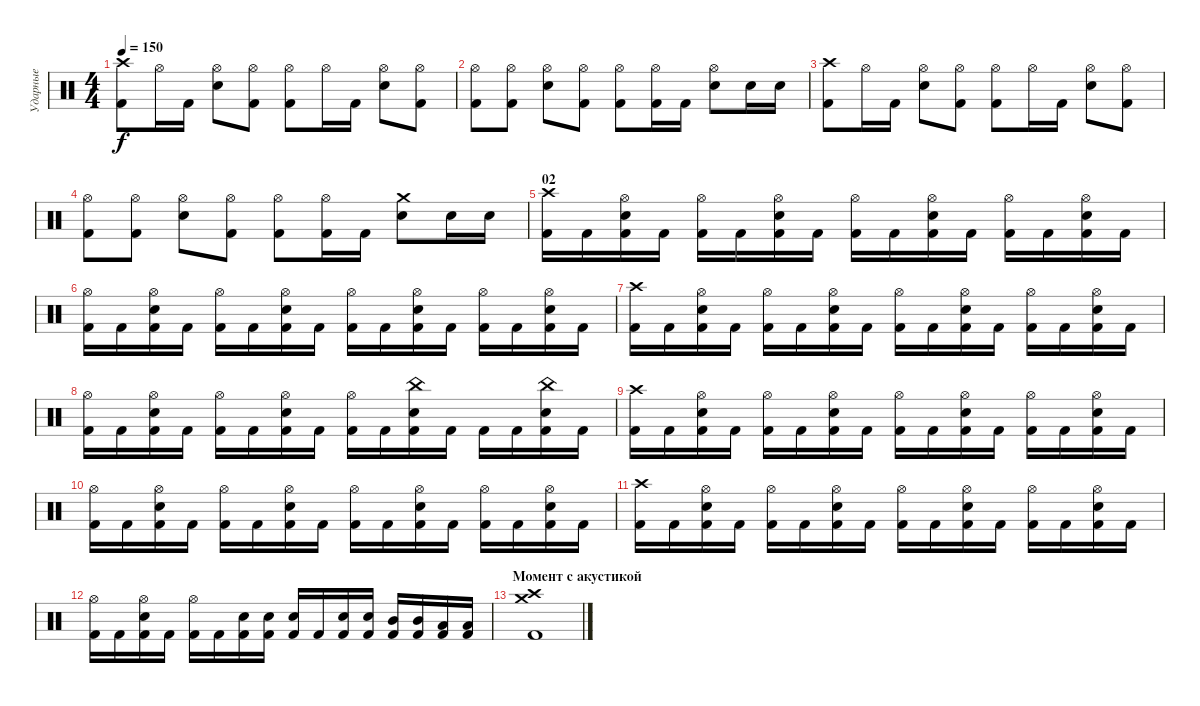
\track ("Ударные" "Ударные") {instrument percussion}
\staff {score}
\articulation defaults
\ts (4 4)
\tempo 150
\clef neutral
\ks c
("Crash high (hit)" "Kick (hit) 2").8{dy f} "Hi-Hat (open)".16 "Kick (hit) 2".16 ("Hi-Hat (open)" "Electric Snare (hit)").8 ("Hi-Hat (open)" "Kick (hit) 2").8 ("Hi-Hat (open)" "Kick (hit) 2").8 "Hi-Hat (open)".16 "Kick (hit) 2".16 ("Hi-Hat (open)" "Electric Snare (hit)").8 ("Hi-Hat (open)" "Kick (hit) 2").8 |
("Hi-Hat (open)" "Kick (hit) 2").8 ("Hi-Hat (open)" "Kick (hit) 2").8 ("Hi-Hat (open)" "Electric Snare (hit)").8 ("Hi-Hat (open)" "Kick (hit) 2").8 ("Hi-Hat (open)" "Kick (hit) 2").8 ("Hi-Hat (open)" "Kick (hit) 2").16 "Kick (hit) 2".16 ("Hi-Hat (open)" "Electric Snare (hit)").8 "Electric Snare (hit)".16 "Electric Snare (hit)".16 |
("Crash high (hit)" "Kick (hit) 2").8 "Hi-Hat (open)".16 "Kick (hit) 2".16 ("Hi-Hat (open)" "Electric Snare (hit)").8 ("Hi-Hat (open)" "Kick (hit) 2").8 ("Hi-Hat (open)" "Kick (hit) 2").8 "Hi-Hat (open)".16 "Kick (hit) 2".16 ("Hi-Hat (open)" "Electric Snare (hit)").8 ("Hi-Hat (open)" "Kick (hit) 2").8 |
("Hi-Hat (open)" "Kick (hit) 2").8 ("Hi-Hat (open)" "Kick (hit) 2").8 ("Hi-Hat (open)" "Electric Snare (hit)").8 ("Hi-Hat (open)" "Kick (hit) 2").8 ("Hi-Hat (open)" "Kick (hit) 2").8 ("Hi-Hat (open)" "Kick (hit) 2").16 "Kick (hit) 2".16 ("Crash medium (hit)" "Electric Snare (hit)").8 "Electric Snare (hit)".16 "Electric Snare (hit)".16 |
\section ("" "02")
("Crash high (hit)" "Kick (hit) 2").16 "Kick (hit) 2".16 ("Hi-Hat (open)" "Electric Snare (hit)" "Kick (hit) 2").16 "Kick (hit) 2".16 ("Hi-Hat (open)" "Kick (hit) 2").16 "Kick (hit) 2".16 ("Hi-Hat (open)" "Electric Snare (hit)" "Kick (hit) 2").16 "Kick (hit) 2".16 ("Hi-Hat (open)" "Kick (hit) 2").16 "Kick (hit) 2".16 ("Hi-Hat (open)" "Electric Snare (hit)" "Kick (hit) 2").16 "Kick (hit) 2".16 ("Hi-Hat (open)" "Kick (hit) 2").16 "Kick (hit) 2".16 ("Hi-Hat (open)" "Electric Snare (hit)" "Kick (hit) 2").16 "Kick (hit) 2".16 |
("Hi-Hat (open)" "Kick (hit) 2").16 "Kick (hit) 2".16 ("Hi-Hat (open)" "Electric Snare (hit)" "Kick (hit) 2").16 "Kick (hit) 2".16 ("Hi-Hat (open)" "Kick (hit) 2").16 "Kick (hit) 2".16 ("Hi-Hat (open)" "Electric Snare (hit)" "Kick (hit) 2").16 "Kick (hit) 2".16 ("Hi-Hat (open)" "Kick (hit) 2").16 "Kick (hit) 2".16 ("Hi-Hat (open)" "Electric Snare (hit)" "Kick (hit) 2").16 "Kick (hit) 2".16 ("Hi-Hat (open)" "Kick (hit) 2").16 "Kick (hit) 2".16 ("Hi-Hat (open)" "Electric Snare (hit)" "Kick (hit) 2").16 "Kick (hit) 2".16 |
("Crash high (hit)" "Kick (hit) 2").16 "Kick (hit) 2".16 ("Hi-Hat (open)" "Electric Snare (hit)" "Kick (hit) 2").16 "Kick (hit) 2".16 ("Hi-Hat (open)" "Kick (hit) 2").16 "Kick (hit) 2".16 ("Hi-Hat (open)" "Electric Snare (hit)" "Kick (hit) 2").16 "Kick (hit) 2".16 ("Hi-Hat (open)" "Kick (hit) 2").16 "Kick (hit) 2".16 ("Hi-Hat (open)" "Electric Snare (hit)" "Kick (hit) 2").16 "Kick (hit) 2".16 ("Hi-Hat (open)" "Kick (hit) 2").16 "Kick (hit) 2".16 ("Hi-Hat (open)" "Electric Snare (hit)" "Kick (hit) 2").16 "Kick (hit) 2".16 |
("Hi-Hat (open)" "Kick (hit) 2").16 "Kick (hit) 2".16 ("Hi-Hat (open)" "Electric Snare (hit)" "Kick (hit) 2").16 "Kick (hit) 2".16 ("Hi-Hat (open)" "Kick (hit) 2").16 "Kick (hit) 2".16 ("Hi-Hat (open)" "Electric Snare (hit)" "Kick (hit) 2").16 "Kick (hit) 2".16 ("Hi-Hat (open)" "Kick (hit) 2").16 "Kick (hit) 2".16 ("China (hit)" "Electric Snare (hit)" "Kick (hit) 2").16 "Kick (hit) 2".16 "Kick (hit) 2".16 "Kick (hit) 2".16 ("China (hit)" "Electric Snare (hit)" "Kick (hit) 2").16 "Kick (hit) 2".16 |
("Crash high (hit)" "Kick (hit) 2").16 "Kick (hit) 2".16 ("Hi-Hat (open)" "Electric Snare (hit)" "Kick (hit) 2").16 "Kick (hit) 2".16 ("Hi-Hat (open)" "Kick (hit) 2").16 "Kick (hit) 2".16 ("Hi-Hat (open)" "Electric Snare (hit)" "Kick (hit) 2").16 "Kick (hit) 2".16 ("Hi-Hat (open)" "Kick (hit) 2").16 "Kick (hit) 2".16 ("Hi-Hat (open)" "Electric Snare (hit)" "Kick (hit) 2").16 "Kick (hit) 2".16 ("Hi-Hat (open)" "Kick (hit) 2").16 "Kick (hit) 2".16 ("Hi-Hat (open)" "Electric Snare (hit)" "Kick (hit) 2").16 "Kick (hit) 2".16 |
("Hi-Hat (open)" "Kick (hit) 2").16 "Kick (hit) 2".16 ("Hi-Hat (open)" "Electric Snare (hit)" "Kick (hit) 2").16 "Kick (hit) 2".16 ("Hi-Hat (open)" "Kick (hit) 2").16 "Kick (hit) 2".16 ("Hi-Hat (open)" "Electric Snare (hit)" "Kick (hit) 2").16 "Kick (hit) 2".16 ("Hi-Hat (open)" "Kick (hit) 2").16 "Kick (hit) 2".16 ("Hi-Hat (open)" "Electric Snare (hit)" "Kick (hit) 2").16 "Kick (hit) 2".16 ("Hi-Hat (open)" "Kick (hit) 2").16 "Kick (hit) 2".16 ("Hi-Hat (open)" "Electric Snare (hit)" "Kick (hit) 2").16 "Kick (hit) 2".16 |
("Crash high (hit)" "Kick (hit) 2").16 "Kick (hit) 2".16 ("Hi-Hat (open)" "Electric Snare (hit)" "Kick (hit) 2").16 "Kick (hit) 2".16 ("Hi-Hat (open)" "Kick (hit) 2").16 "Kick (hit) 2".16 ("Hi-Hat (open)" "Electric Snare (hit)" "Kick (hit) 2").16 "Kick (hit) 2".16 ("Hi-Hat (open)" "Kick (hit) 2").16 "Kick (hit) 2".16 ("Hi-Hat (open)" "Electric Snare (hit)" "Kick (hit) 2").16 "Kick (hit) 2".16 ("Hi-Hat (open)" "Kick (hit) 2").16 "Kick (hit) 2".16 ("Hi-Hat (open)" "Electric Snare (hit)" "Kick (hit) 2").16 "Kick (hit) 2".16 |
("Hi-Hat (open)" "Kick (hit) 2").16 "Kick (hit) 2".16 ("Hi-Hat (open)" "Electric Snare (hit)" "Kick (hit) 2").16 "Kick (hit) 2".16 ("Hi-Hat (open)" "Kick (hit) 2").16 "Kick (hit) 2".16 ("Electric Snare (hit)" "Kick (hit) 2").16 ("Electric Snare (hit)" "Kick (hit) 2").16 ("Electric Snare (hit)" "Kick (hit) 2").16 "Kick (hit) 2".16 ("Electric Snare (hit)" "Kick (hit) 2").16 ("Electric Snare (hit)" "Kick (hit) 2").16 ("Mid Tom (hit)" "Kick (hit) 2").16 ("Mid Tom (hit)" "Kick (hit) 2").16 ("Low Tom (hit)" "Kick (hit) 2").16 ("Low Tom (hit)" "Kick (hit) 2").16 |
\section ("" "Момент с акустикой")
("Crash high (hit)" "Crash medium (hit)" "Kick (hit) 2").1
